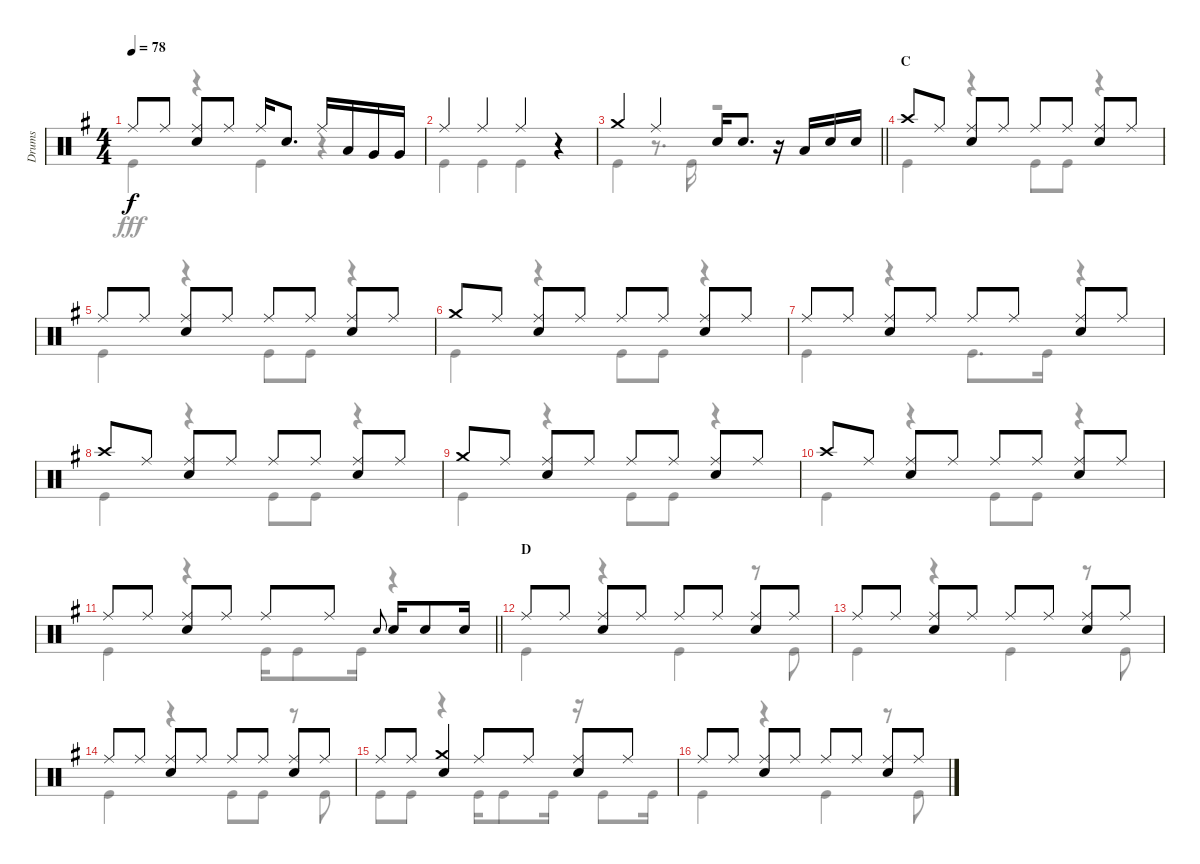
\track ("Drums" "Drums") {instrument percussion}
\staff {score}
\articulation defaults
\voice
\ts (4 4)
\tempo 78
\clef neutral
\ks g "Ride (middle)".8{dy f} "Ride (middle)".8
("Ride (middle)" "Snare (hit) 2").8 "Ride (middle)".8 "Ride (middle)".16 "Snare (hit) 2".8{d} "Ride (middle)".16 "Low Tom (hit)".16 "Very Low Tom (hit)".16 "Very Low Tom (hit)".16 |
"Ride (middle)".4 "Ride (middle)".4 "Ride (middle)".4 r.4 |
\barLineRight lightlight "Crash medium (hit)".4 "Ride (middle)".4 "Snare (hit) 2".16 "Snare (hit) 2".8{d}
r.16 "Low Tom (hit)".16 "Snare (hit) 2".16 "Snare (hit) 2".16 |
\section ("" "C")
"Crash high (hit)".8 "Ride (middle)".8 ("Ride (middle)" "Snare (hit) 2").8 "Ride (middle)".8 "Ride (middle)".8 "Ride (middle)".8 ("Ride (middle)" "Snare (hit) 2").8 "Ride (middle)".8 |
"Ride (middle)".8 "Ride (middle)".8 ("Ride (middle)" "Snare (hit) 2").8 "Ride (middle)".8 "Ride (middle)".8 "Ride (middle)".8 ("Ride (middle)" "Snare (hit) 2").8 "Ride (middle)".8 |
"Crash medium (hit)".8 "Ride (middle)".8 ("Ride (middle)" "Snare (hit) 2").8 "Ride (middle)".8 "Ride (middle)".8 "Ride (middle)".8 ("Ride (middle)" "Snare (hit) 2").8 "Ride (middle)".8 |
"Ride (middle)".8 "Ride (middle)".8 ("Ride (middle)" "Snare (hit) 2").8 "Ride (middle)".8 "Ride (middle)".8 "Ride (middle)".8 ("Ride (middle)" "Snare (hit) 2").8 "Ride (middle)".8 |
"Crash high (hit)".8 "Ride (middle)".8 ("Ride (middle)" "Snare (hit) 2").8 "Ride (middle)".8 "Ride (middle)".8 "Ride (middle)".8 ("Ride (middle)" "Snare (hit) 2").8 "Ride (middle)".8 |
"Crash medium (hit)".8 "Ride (middle)".8 ("Ride (middle)" "Snare (hit) 2").8 "Ride (middle)".8 "Ride (middle)".8 "Ride (middle)".8 ("Ride (middle)" "Snare (hit) 2").8 "Ride (middle)".8 |
"Crash high (hit)".8 "Ride (middle)".8 ("Ride (middle)" "Snare (hit) 2").8 "Ride (middle)".8 "Ride (middle)".8 "Ride (middle)".8 ("Ride (middle)" "Snare (hit) 2").8 "Ride (middle)".8 |
\barLineRight lightlight "Ride (middle)".8 "Ride (middle)".8
("Ride (middle)" "Snare (hit) 2").8 "Ride (middle)".8 "Ride (middle)".8 "Ride (middle)".8 "Snare (hit) 2".8{gr onbeat} "Snare (hit) 2".16 "Snare (hit) 2".8 "Snare (hit) 2".16 |
\section ("" "D")
"Ride (middle)".8 "Ride (middle)".8 ("Ride (middle)" "Snare (hit) 2").8 "Ride (middle)".8 "Ride (middle)".8 "Ride (middle)".8 ("Ride (middle)" "Snare (hit) 2").8 "Ride (middle)".8 |
"Ride (middle)".8 "Ride (middle)".8 ("Ride (middle)" "Snare (hit) 2").8 "Ride (middle)".8 "Ride (middle)".8 "Ride (middle)".8 ("Ride (middle)" "Snare (hit) 2").8 "Ride (middle)".8 |
"Ride (middle)".8 "Ride (middle)".8 ("Ride (middle)" "Snare (hit) 2").8 "Ride (middle)".8 "Ride (middle)".8 "Ride (middle)".8 ("Ride (middle)" "Snare (hit) 2").8 "Ride (middle)".8 |
"Ride (middle)".8 "Ride (middle)".8 ("Crash medium (hit)" "Snare (hit) 2").4 "Ride (middle)".8 "Ride (middle)".8 ("Ride (middle)" "Snare (hit) 2").8 "Ride (middle)".8 |
"Ride (middle)".8 "Ride (middle)".8 ("Ride (middle)" "Snare (hit) 2").8 "Ride (middle)".8 "Ride (middle)".8 "Ride (middle)".8 ("Ride (middle)" "Snare (hit) 2").8 "Ride (middle)".8
\voice
\clef neutral
\ottava regular
\simile none
\ks g "Kick (hit)".4{dy fff}
r.4 "Kick (hit)".4 r.4 |
"Kick (hit)".4 "Kick (hit)".4 "Kick (hit)".4 r.4 |
\barLineRight lightlight "Kick (hit)".4
r.8{d} "Kick (hit)".16 r.2 |
"Kick (hit)".4 r.4 "Kick (hit)".8 "Kick (hit)".8 r.4 |
"Kick (hit)".4 r.4 "Kick (hit)".8 "Kick (hit)".8 r.4 |
"Kick (hit)".4 r.4 "Kick (hit)".8 "Kick (hit)".8 r.4 |
"Kick (hit)".4 r.4 "Kick (hit)".8{d} "Kick (hit)".16 r.4 |
"Kick (hit)".4 r.4 "Kick (hit)".8 "Kick (hit)".8 r.4 |
"Kick (hit)".4 r.4 "Kick (hit)".8 "Kick (hit)".8 r.4 |
"Kick (hit)".4 r.4 "Kick (hit)".8 "Kick (hit)".8 r.4 |
\barLineRight lightlight "Kick (hit)".4
r.4 "Kick (hit)".16 "Kick (hit)".8 "Kick (hit)".16 r.4 |
"Kick (hit)".4 r.4 "Kick (hit)".4 r.8 "Kick (hit)".8 |
"Kick (hit)".4 r.4 "Kick (hit)".4 r.8 "Kick (hit)".8 |
"Kick (hit)".4 r.4 "Kick (hit)".8 "Kick (hit)".8 r.8 "Kick (hit)".8 |
"Kick (hit)".8 "Kick (hit)".8 r.4 "Kick (hit)".16 "Kick (hit)".8 "Kick (hit)".16 r.16 "Kick (hit)".8 "Kick (hit)".16 |
"Kick (hit)".4 r.4 "Kick (hit)".4 r.8 "Kick (hit)".8
